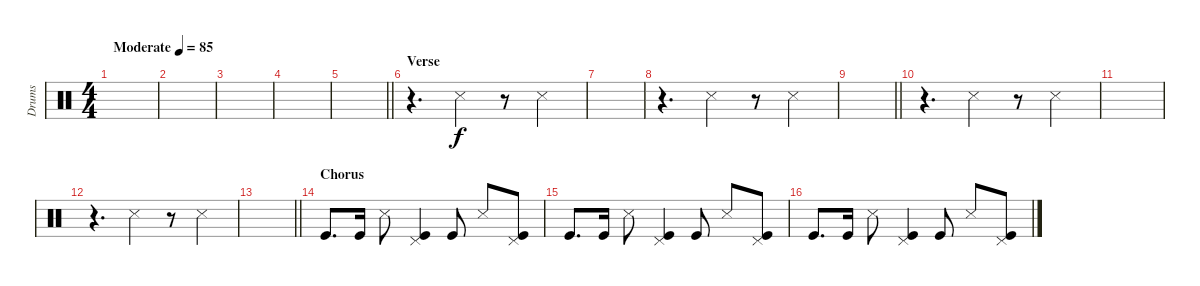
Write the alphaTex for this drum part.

\track ("Drums" "Drums") {instrument percussion}
\staff {score}
\articulation defaults
\ts (4 4)
\tempo (85 "Moderate")
\clef neutral
\ks c
|
|
|
|
\barLineRight lightlight
|
\section ("" "Verse")
r.4{d} "Snare (side stick) 3".4 r.8 "Snare (side stick) 3".4 |
|
r.4{d} "Snare (side stick) 3".4 r.8 "Snare (side stick) 3".4 |
\barLineRight lightlight
|
r.4{d} "Snare (side stick) 3".4 r.8 "Snare (side stick) 3".4 |
|
r.4{d} "Snare (side stick) 3".4 r.8 "Snare (side stick) 3".4 |
\barLineRight lightlight
|
\section ("" "Chorus")
"Kick (hit)".8{d} "Kick (hit)".16 "Snare (side stick) 3".8 ("Pedal Hi-Hat (hit)" "Kick (hit)").4 "Kick (hit)".8 "Snare (side stick) 3".8 ("Pedal Hi-Hat (hit)" "Kick (hit)").8 |
"Kick (hit)".8{d} "Kick (hit)".16 "Snare (side stick) 3".8 ("Pedal Hi-Hat (hit)" "Kick (hit)").4 "Kick (hit)".8 "Snare (side stick) 3".8 ("Pedal Hi-Hat (hit)" "Kick (hit)").8 |
"Kick (hit)".8{d} "Kick (hit)".16 "Snare (side stick) 3".8 ("Pedal Hi-Hat (hit)" "Kick (hit)").4 "Kick (hit)".8 "Snare (side stick) 3".8 ("Pedal Hi-Hat (hit)" "Kick (hit)").8
